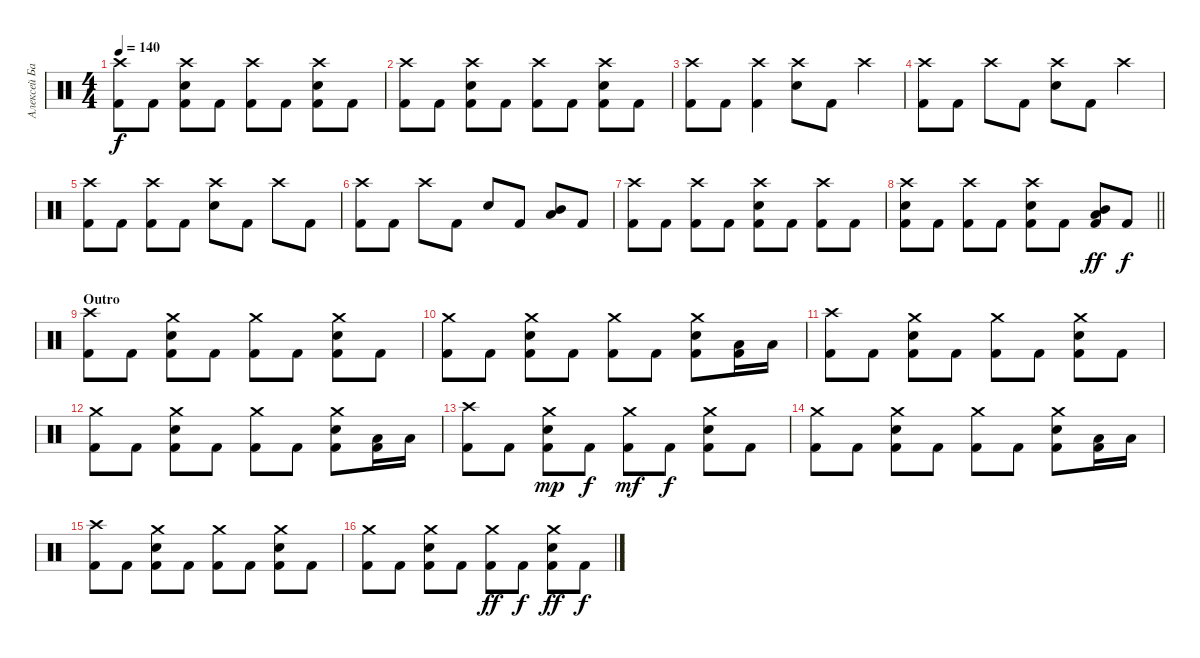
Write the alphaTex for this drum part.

\track ("Алексей Барзилович" "Алексей Ба") {instrument percussion}
\staff {score}
\articulation defaults
\ts (4 4)
\tempo 140
\clef neutral
\ks c
("Crash high (hit)" "Kick (hit) 2").8{dy f} "Kick (hit) 2".8 ("Crash high (hit)" "Electric Snare (hit)" "Kick (hit) 2").8 "Kick (hit) 2".8 ("Crash high (hit)" "Kick (hit) 2").8 "Kick (hit) 2".8 ("Crash high (hit)" "Electric Snare (hit)" "Kick (hit) 2").8 "Kick (hit) 2".8 |
("Crash high (hit)" "Kick (hit) 2").8 "Kick (hit) 2".8 ("Crash high (hit)" "Electric Snare (hit)" "Kick (hit) 2").8 "Kick (hit) 2".8 ("Crash high (hit)" "Kick (hit) 2").8 "Kick (hit) 2".8 ("Crash high (hit)" "Electric Snare (hit)" "Kick (hit) 2").8 "Kick (hit) 2".8 |
("Crash high (hit)" "Kick (hit) 2").8 "Kick (hit) 2".8 ("Crash high (hit)" "Kick (hit) 2").4 ("Crash high (hit)" "Electric Snare (hit)").8 "Kick (hit) 2".8 "Crash high (hit)".4 |
("Crash high (hit)" "Kick (hit) 2").8 "Kick (hit) 2".8 "Crash high (hit)".8 "Kick (hit) 2".8 ("Crash high (hit)" "Electric Snare (hit)").8 "Kick (hit) 2".8 "Crash high (hit)".4 |
("Crash high (hit)" "Kick (hit) 2").8 "Kick (hit) 2".8 ("Crash high (hit)" "Kick (hit) 2").8 "Kick (hit) 2".8 ("Crash high (hit)" "Electric Snare (hit)").8 "Kick (hit) 2".8 "Crash high (hit)".8 "Kick (hit) 2".8 |
("Crash high (hit)" "Kick (hit) 2").8 "Kick (hit) 2".8 "Crash high (hit)".8 "Kick (hit) 2".8 "Electric Snare (hit)".8 "Kick (hit) 2".8 ("Mid Tom (hit)" "Low Tom (hit)").8 "Kick (hit) 2".8 |
("Crash high (hit)" "Kick (hit) 2").8 "Kick (hit) 2".8 ("Crash high (hit)" "Kick (hit) 2").8 "Kick (hit) 2".8 ("Crash high (hit)" "Electric Snare (hit)" "Kick (hit) 2").8 "Kick (hit) 2".8 ("Crash high (hit)" "Kick (hit) 2").8 "Kick (hit) 2".8 |
\barLineRight lightlight
("Crash high (hit)" "Electric Snare (hit)" "Kick (hit) 2").8 "Kick (hit) 2".8 ("Crash high (hit)" "Kick (hit) 2").8 "Kick (hit) 2".8 ("Crash high (hit)" "Electric Snare (hit)" "Kick (hit) 2").8 "Kick (hit) 2".8 ("Mid Tom (hit)" "Low Tom (hit)" "Kick (hit) 2").8{dy ff} "Kick (hit) 2".8{dy f} |
\section ("" "Outro")
("Crash high (hit)" "Kick (hit) 2").8 "Kick (hit) 2".8 ("Crash medium (hit)" "Electric Snare (hit)" "Kick (hit) 2").8 "Kick (hit) 2".8 ("Crash medium (hit)" "Kick (hit) 2").8 "Kick (hit) 2".8 ("Crash medium (hit)" "Electric Snare (hit)" "Kick (hit) 2").8 "Kick (hit) 2".8 |
("Crash medium (hit)" "Kick (hit) 2").8 "Kick (hit) 2".8 ("Crash medium (hit)" "Electric Snare (hit)" "Kick (hit) 2").8 "Kick (hit) 2".8 ("Crash medium (hit)" "Kick (hit) 2").8 "Kick (hit) 2".8 ("Crash medium (hit)" "Electric Snare (hit)" "Kick (hit) 2").8 ("Low Tom (hit)" "Kick (hit) 2").16 "Low Tom (hit)".16 |
("Crash high (hit)" "Kick (hit) 2").8 "Kick (hit) 2".8 ("Crash medium (hit)" "Electric Snare (hit)" "Kick (hit) 2").8 "Kick (hit) 2".8 ("Crash medium (hit)" "Kick (hit) 2").8 "Kick (hit) 2".8 ("Crash medium (hit)" "Electric Snare (hit)" "Kick (hit) 2").8 "Kick (hit) 2".8 |
("Crash medium (hit)" "Kick (hit) 2").8 "Kick (hit) 2".8 ("Crash medium (hit)" "Electric Snare (hit)" "Kick (hit) 2").8 "Kick (hit) 2".8 ("Crash medium (hit)" "Kick (hit) 2").8 "Kick (hit) 2".8 ("Crash medium (hit)" "Electric Snare (hit)" "Kick (hit) 2").8 ("Low Tom (hit)" "Kick (hit) 2").16 "Low Tom (hit)".16 |
("Crash high (hit)" "Kick (hit) 2").8 "Kick (hit) 2".8 ("Crash medium (hit)" "Electric Snare (hit)" "Kick (hit) 2").8{dy mp} "Kick (hit) 2".8{dy f} ("Crash medium (hit)" "Kick (hit) 2").8{dy mf} "Kick (hit) 2".8{dy f} ("Crash medium (hit)" "Electric Snare (hit)" "Kick (hit) 2").8 "Kick (hit) 2".8 |
("Crash medium (hit)" "Kick (hit) 2").8 "Kick (hit) 2".8 ("Crash medium (hit)" "Electric Snare (hit)" "Kick (hit) 2").8 "Kick (hit) 2".8 ("Crash medium (hit)" "Kick (hit) 2").8 "Kick (hit) 2".8 ("Crash medium (hit)" "Electric Snare (hit)" "Kick (hit) 2").8 ("Low Tom (hit)" "Kick (hit) 2").16 "Low Tom (hit)".16 |
("Crash high (hit)" "Kick (hit) 2").8 "Kick (hit) 2".8 ("Crash medium (hit)" "Electric Snare (hit)" "Kick (hit) 2").8 "Kick (hit) 2".8 ("Crash medium (hit)" "Kick (hit) 2").8 "Kick (hit) 2".8 ("Crash medium (hit)" "Electric Snare (hit)" "Kick (hit) 2").8 "Kick (hit) 2".8 |
("Crash medium (hit)" "Kick (hit) 2").8 "Kick (hit) 2".8 ("Crash medium (hit)" "Electric Snare (hit)" "Kick (hit) 2").8 "Kick (hit) 2".8 ("Crash medium (hit)" "Kick (hit) 2").8{dy ff} "Kick (hit) 2".8{dy f} ("Crash medium (hit)" "Electric Snare (hit)" "Kick (hit) 2").8{dy ff} "Kick (hit) 2".8{dy f}
